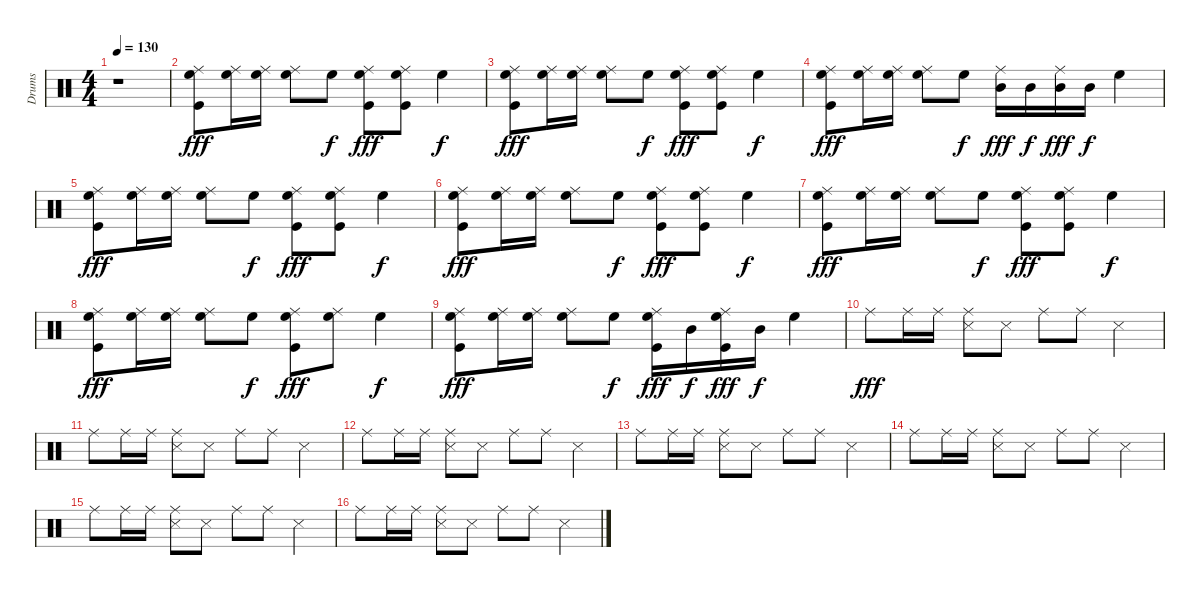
\track ("Drums" "Drums") {instrument percussion}
\staff {score}
\articulation defaults
\ts (4 4)
\tempo 130
\clef neutral
\ks c
r.1{dy fff} |
("Ride (middle)" "High Floor Tom (hit)" "Kick (hit)").8 ("Ride (middle)" "High Floor Tom (hit)").16 ("Ride (middle)" "High Floor Tom (hit)").16 ("Ride (middle)" "High Floor Tom (hit)").8 "High Floor Tom (hit)".8{dy f} ("Ride (middle)" "High Floor Tom (hit)" "Kick (hit)").8{dy fff} ("Ride (middle)" "High Floor Tom (hit)" "Kick (hit)").8 "High Floor Tom (hit)".4{dy f} |
("Ride (middle)" "High Floor Tom (hit)" "Kick (hit)").8{dy fff} ("Ride (middle)" "High Floor Tom (hit)").16 ("Ride (middle)" "High Floor Tom (hit)").16 ("Ride (middle)" "High Floor Tom (hit)").8 "High Floor Tom (hit)".8{dy f} ("Ride (middle)" "High Floor Tom (hit)" "Kick (hit)").8{dy fff} ("Ride (middle)" "High Floor Tom (hit)" "Kick (hit)").8 "High Floor Tom (hit)".4{dy f} |
("Ride (middle)" "High Floor Tom (hit)" "Kick (hit)").8{dy fff} ("Ride (middle)" "High Floor Tom (hit)").16 ("Ride (middle)" "High Floor Tom (hit)").16 ("Ride (middle)" "High Floor Tom (hit)").8 "High Floor Tom (hit)".8{dy f} ("Ride (middle)" "Mid Tom (hit)").16{dy fff} "Mid Tom (hit)".16{dy f} ("Ride (middle)" "Mid Tom (hit)").16{dy fff} "Mid Tom (hit)".16{dy f} "High Floor Tom (hit)".4 |
("Ride (middle)" "High Floor Tom (hit)" "Kick (hit)").8{dy fff} ("Ride (middle)" "High Floor Tom (hit)").16 ("Ride (middle)" "High Floor Tom (hit)").16 ("Ride (middle)" "High Floor Tom (hit)").8 "High Floor Tom (hit)".8{dy f} ("Ride (middle)" "High Floor Tom (hit)" "Kick (hit)").8{dy fff} ("Ride (middle)" "High Floor Tom (hit)" "Kick (hit)").8 "High Floor Tom (hit)".4{dy f} |
("Ride (middle)" "High Floor Tom (hit)" "Kick (hit)").8{dy fff} ("Ride (middle)" "High Floor Tom (hit)").16 ("Ride (middle)" "High Floor Tom (hit)").16 ("Ride (middle)" "High Floor Tom (hit)").8 "High Floor Tom (hit)".8{dy f} ("Ride (middle)" "High Floor Tom (hit)" "Kick (hit)").8{dy fff} ("Ride (middle)" "High Floor Tom (hit)" "Kick (hit)").8 "High Floor Tom (hit)".4{dy f} |
("Ride (middle)" "High Floor Tom (hit)" "Kick (hit)").8{dy fff} ("Ride (middle)" "High Floor Tom (hit)").16 ("Ride (middle)" "High Floor Tom (hit)").16 ("Ride (middle)" "High Floor Tom (hit)").8 "High Floor Tom (hit)".8{dy f} ("Ride (middle)" "High Floor Tom (hit)" "Kick (hit)").8{dy fff} ("Ride (middle)" "High Floor Tom (hit)" "Kick (hit)").8 "High Floor Tom (hit)".4{dy f} |
("Ride (middle)" "High Floor Tom (hit)" "Kick (hit)").8{dy fff} ("Ride (middle)" "High Floor Tom (hit)").16 ("Ride (middle)" "High Floor Tom (hit)").16 ("Ride (middle)" "High Floor Tom (hit)").8 "High Floor Tom (hit)".8{dy f} ("Ride (middle)" "High Floor Tom (hit)" "Kick (hit)").8{dy fff} ("Ride (middle)" "High Floor Tom (hit)").8 "High Floor Tom (hit)".4{dy f} |
("Ride (middle)" "High Floor Tom (hit)" "Kick (hit)").8{dy fff} ("Ride (middle)" "High Floor Tom (hit)").16 ("Ride (middle)" "High Floor Tom (hit)").16 ("Ride (middle)" "High Floor Tom (hit)").8 "High Floor Tom (hit)".8{dy f} ("Ride (middle)" "High Floor Tom (hit)" "Kick (hit)").16{dy fff} "Mid Tom (hit)".16{dy f} ("Ride (middle)" "High Floor Tom (hit)" "Kick (hit)").16{dy fff} "Mid Tom (hit)".16{dy f} "High Floor Tom (hit)".4 |
"Ride (middle)".8{dy fff} "Ride (middle)".16 "Ride (middle)".16 ("Ride (middle)" "Snare (side stick) 3").8 "Snare (side stick) 3".8 "Ride (middle)".8 "Ride (middle)".8 "Snare (side stick) 3".4 |
"Ride (middle)".8 "Ride (middle)".16 "Ride (middle)".16 ("Ride (middle)" "Snare (side stick) 3").8 "Snare (side stick) 3".8 "Ride (middle)".8 "Ride (middle)".8 "Snare (side stick) 3".4 |
"Ride (middle)".8 "Ride (middle)".16 "Ride (middle)".16 ("Ride (middle)" "Snare (side stick) 3").8 "Snare (side stick) 3".8 "Ride (middle)".8 "Ride (middle)".8 "Snare (side stick) 3".4 |
"Ride (middle)".8 "Ride (middle)".16 "Ride (middle)".16 ("Ride (middle)" "Snare (side stick) 3").8 "Snare (side stick) 3".8 "Ride (middle)".8 "Ride (middle)".8 "Snare (side stick) 3".4 |
"Ride (middle)".8 "Ride (middle)".16 "Ride (middle)".16 ("Ride (middle)" "Snare (side stick) 3").8 "Snare (side stick) 3".8 "Ride (middle)".8 "Ride (middle)".8 "Snare (side stick) 3".4 |
"Ride (middle)".8 "Ride (middle)".16 "Ride (middle)".16 ("Ride (middle)" "Snare (side stick) 3").8 "Snare (side stick) 3".8 "Ride (middle)".8 "Ride (middle)".8 "Snare (side stick) 3".4 |
"Ride (middle)".8 "Ride (middle)".16 "Ride (middle)".16 ("Ride (middle)" "Snare (side stick) 3").8 "Snare (side stick) 3".8 "Ride (middle)".8 "Ride (middle)".8 "Snare (side stick) 3".4
